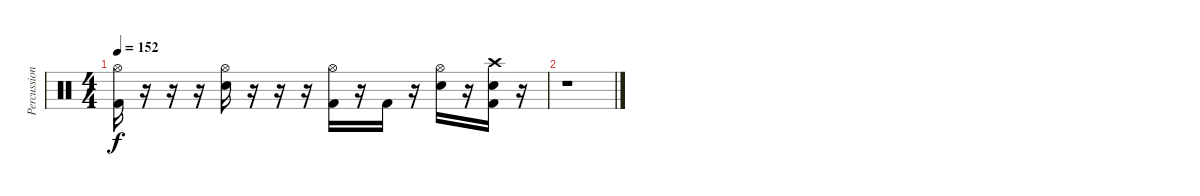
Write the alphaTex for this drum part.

\track ("Percussions" "Percussion") {instrument percussion}
\staff {score}
\articulation defaults
\ts (4 4)
\tempo 152
\clef neutral
\ks c
("Kick (hit) 2" "Hi-Hat (open)").16{dy f} r.16 r.16 r.16 ("Electric Snare (hit)" "Hi-Hat (open)").16 r.16 r.16 r.16 ("Kick (hit) 2" "Hi-Hat (open)").16 r.16 "Kick (hit) 2".16 r.16 ("Electric Snare (hit)" "Hi-Hat (open)").16 r.16 ("Kick (hit) 2" "Electric Snare (hit)" "Crash high (hit)").16 r.16 |
r.1
